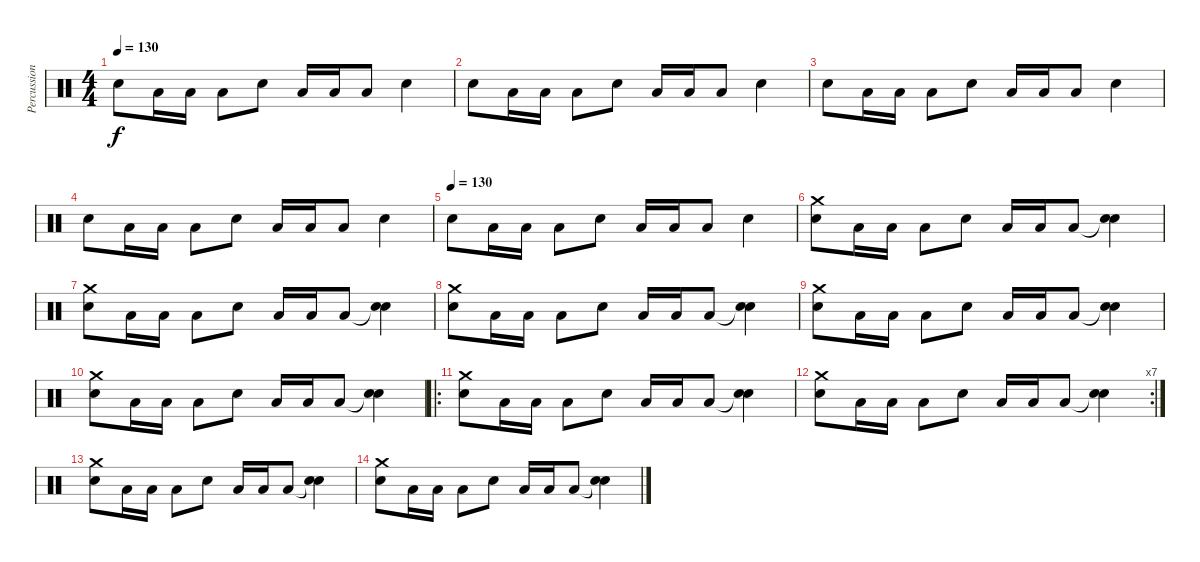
\track ("Percussions" "Percussion") {instrument percussion}
\staff {score}
\articulation defaults
\ts (4 4)
\tempo 130
\clef neutral
\ks c "Electric Snare (hit)".8{dy f} "Low Tom (hit)".16 "Low Tom (hit)".16 "Low Tom (hit)".8 "Electric Snare (hit)".8 "Low Tom (hit)".16 "Low Tom (hit)".16 "Low Tom (hit)".8 "Electric Snare (hit)".4
|
"Electric Snare (hit)".8 "Low Tom (hit)".16 "Low Tom (hit)".16 "Low Tom (hit)".8 "Electric Snare (hit)".8 "Low Tom (hit)".16 "Low Tom (hit)".16 "Low Tom (hit)".8 "Electric Snare (hit)".4 |
"Electric Snare (hit)".8 "Low Tom (hit)".16 "Low Tom (hit)".16 "Low Tom (hit)".8 "Electric Snare (hit)".8 "Low Tom (hit)".16 "Low Tom (hit)".16 "Low Tom (hit)".8 "Electric Snare (hit)".4 |
"Electric Snare (hit)".8 "Low Tom (hit)".16 "Low Tom (hit)".16 "Low Tom (hit)".8 "Electric Snare (hit)".8 "Low Tom (hit)".16 "Low Tom (hit)".16 "Low Tom (hit)".8 "Electric Snare (hit)".4 |
\tempo (130)
"Electric Snare (hit)".8 "Low Tom (hit)".16 "Low Tom (hit)".16 "Low Tom (hit)".8 "Electric Snare (hit)".8 "Low Tom (hit)".16 "Low Tom (hit)".16 "Low Tom (hit)".8 "Electric Snare (hit)".4 |
("Crash medium (hit)" "Electric Snare (hit)").8 "Low Tom (hit)".16 "Low Tom (hit)".16 "Low Tom (hit)".8 "Electric Snare (hit)".8 "Low Tom (hit)".16 "Low Tom (hit)".16 "Low Tom (hit)".8 ("Snare (hit)"{t} "Electric Snare (hit)").4 |
("Crash medium (hit)" "Electric Snare (hit)").8 "Low Tom (hit)".16 "Low Tom (hit)".16 "Low Tom (hit)".8 "Electric Snare (hit)".8 "Low Tom (hit)".16 "Low Tom (hit)".16 "Low Tom (hit)".8 ("Snare (hit)"{t} "Electric Snare (hit)").4 |
("Crash medium (hit)" "Electric Snare (hit)").8 "Low Tom (hit)".16 "Low Tom (hit)".16 "Low Tom (hit)".8 "Electric Snare (hit)".8 "Low Tom (hit)".16 "Low Tom (hit)".16 "Low Tom (hit)".8 ("Snare (hit)"{t} "Electric Snare (hit)").4 |
("Crash medium (hit)" "Electric Snare (hit)").8 "Low Tom (hit)".16 "Low Tom (hit)".16 "Low Tom (hit)".8 "Electric Snare (hit)".8 "Low Tom (hit)".16 "Low Tom (hit)".16 "Low Tom (hit)".8 ("Snare (hit)"{t} "Electric Snare (hit)").4 |
("Crash medium (hit)" "Electric Snare (hit)").8 "Low Tom (hit)".16 "Low Tom (hit)".16 "Low Tom (hit)".8 "Electric Snare (hit)".8 "Low Tom (hit)".16 "Low Tom (hit)".16 "Low Tom (hit)".8 ("Snare (hit)"{t} "Electric Snare (hit)").4 |
\ro
("Crash medium (hit)" "Electric Snare (hit)").8 "Low Tom (hit)".16 "Low Tom (hit)".16 "Low Tom (hit)".8 "Electric Snare (hit)".8 "Low Tom (hit)".16 "Low Tom (hit)".16 "Low Tom (hit)".8 ("Snare (hit)"{t} "Electric Snare (hit)").4 |
\rc 7
("Crash medium (hit)" "Electric Snare (hit)").8 "Low Tom (hit)".16 "Low Tom (hit)".16 "Low Tom (hit)".8 "Electric Snare (hit)".8 "Low Tom (hit)".16 "Low Tom (hit)".16 "Low Tom (hit)".8 ("Snare (hit)"{t} "Electric Snare (hit)").4 |
("Crash medium (hit)" "Electric Snare (hit)").8 "Low Tom (hit)".16 "Low Tom (hit)".16 "Low Tom (hit)".8 "Electric Snare (hit)".8 "Low Tom (hit)".16 "Low Tom (hit)".16 "Low Tom (hit)".8 ("Snare (hit)"{t} "Electric Snare (hit)").4 |
("Crash medium (hit)" "Electric Snare (hit)").8 "Low Tom (hit)".16 "Low Tom (hit)".16 "Low Tom (hit)".8 "Electric Snare (hit)".8 "Low Tom (hit)".16 "Low Tom (hit)".16 "Low Tom (hit)".8 ("Snare (hit)"{t} "Electric Snare (hit)").4
